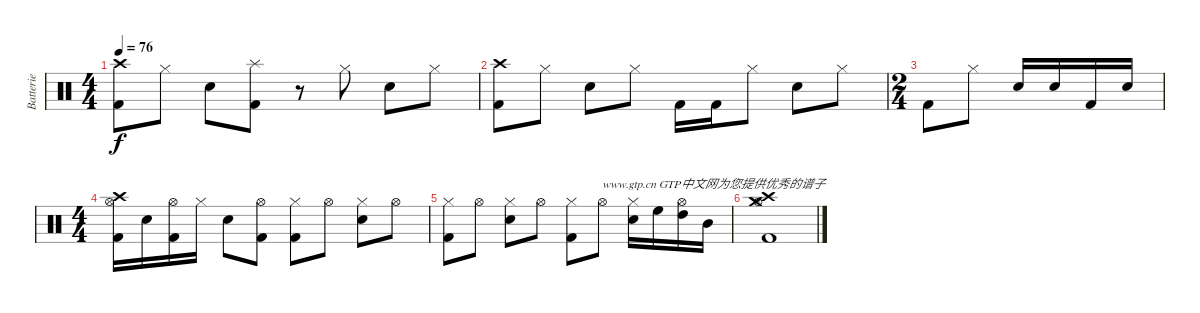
\track ("Batterie" "Batterie") {instrument percussion}
\staff {score}
\articulation defaults
\ts (4 4)
\tempo 76
\clef neutral
\ks c
("Crash high (hit)" "Kick (hit) 2").8{dy f} "Hi-Hat (closed)".8 "Electric Snare (hit)".8 ("Splash (hit)" "Kick (hit) 2").8 r.8 "Hi-Hat (closed)".8 "Electric Snare (hit)".8 "Hi-Hat (closed)".8 |
("Crash high (hit)" "Kick (hit) 2").8 "Hi-Hat (closed)".8 "Electric Snare (hit)".8 "Hi-Hat (closed)".8 "Kick (hit) 2".16 "Kick (hit) 2".16 "Hi-Hat (closed)".8 "Electric Snare (hit)".8 "Hi-Hat (closed)".8 |
\ts (2 4)
"Kick (hit) 2".8 "Hi-Hat (closed)".8 "Electric Snare (hit)".16 "Electric Snare (hit)".16 "Kick (hit) 2".16 "Electric Snare (hit)".16 |
\ts (4 4)
("Crash high (hit)" "Hi-Hat (open)" "Kick (hit) 2").16 "Electric Snare (hit)".16 ("Hi-Hat (open)" "Kick (hit) 2").16 "Hi-Hat (closed)".16 "Electric Snare (hit)".8 ("Hi-Hat (open)" "Kick (hit) 2").8 ("Hi-Hat (closed)" "Kick (hit) 2").8 "Hi-Hat (open)".8 ("Electric Snare (hit)" "Hi-Hat (closed)").8 "Hi-Hat (open)".8 |
("Hi-Hat (closed)" "Kick (hit) 2").8 "Hi-Hat (open)".8 ("Electric Snare (hit)" "Hi-Hat (closed)").8 "Hi-Hat (open)".8 ("Hi-Hat (closed)" "Kick (hit) 2").8 "Hi-Hat (open)".8{txt "www.gtp.cn GTP中文网为您提供优秀的谱子"} ("Electric Snare (hit)" "Hi-Hat (closed)").16 "High Floor Tom (hit)".16 ("High Tom (hit)" "Hi-Hat (open)").16 "Mid Tom (hit)".16 |
("Crash high (hit)" "Crash medium (hit)" "Hi-Hat (open)" "Kick (hit) 2").1
